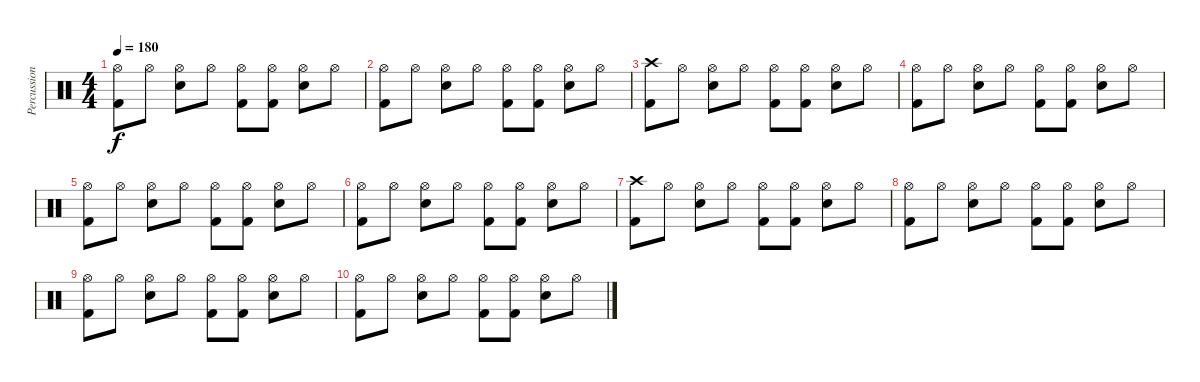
\track ("Percussion" "Percussion") {instrument percussion}
\staff {score}
\articulation defaults
\ts (4 4)
\tempo 180
\clef neutral
\ks c
("Hi-Hat (open)" "Kick (hit) 2").8{dy f} "Hi-Hat (open)".8 ("Hi-Hat (open)" "Snare (hit) 2").8 "Hi-Hat (open)".8 ("Hi-Hat (open)" "Kick (hit) 2").8 ("Hi-Hat (open)" "Kick (hit) 2").8 ("Hi-Hat (open)" "Snare (hit) 2").8 "Hi-Hat (open)".8 |
("Hi-Hat (open)" "Kick (hit) 2").8 "Hi-Hat (open)".8 ("Hi-Hat (open)" "Snare (hit) 2").8 "Hi-Hat (open)".8 ("Hi-Hat (open)" "Kick (hit) 2").8 ("Hi-Hat (open)" "Kick (hit) 2").8 ("Hi-Hat (open)" "Snare (hit) 2").8 "Hi-Hat (open)".8 |
("Crash high (hit)" "Kick (hit) 2").8 "Hi-Hat (open)".8 ("Hi-Hat (open)" "Snare (hit) 2").8 "Hi-Hat (open)".8 ("Hi-Hat (open)" "Kick (hit) 2").8 ("Hi-Hat (open)" "Kick (hit) 2").8 ("Hi-Hat (open)" "Snare (hit) 2").8 "Hi-Hat (open)".8 |
("Hi-Hat (open)" "Kick (hit) 2").8 "Hi-Hat (open)".8 ("Hi-Hat (open)" "Snare (hit) 2").8 "Hi-Hat (open)".8 ("Hi-Hat (open)" "Kick (hit) 2").8 ("Hi-Hat (open)" "Kick (hit) 2").8 ("Hi-Hat (open)" "Snare (hit) 2").8 "Hi-Hat (open)".8 |
("Hi-Hat (open)" "Kick (hit) 2").8 "Hi-Hat (open)".8 ("Hi-Hat (open)" "Snare (hit) 2").8 "Hi-Hat (open)".8 ("Hi-Hat (open)" "Kick (hit) 2").8 ("Hi-Hat (open)" "Kick (hit) 2").8 ("Hi-Hat (open)" "Snare (hit) 2").8 "Hi-Hat (open)".8 |
("Hi-Hat (open)" "Kick (hit) 2").8 "Hi-Hat (open)".8 ("Hi-Hat (open)" "Snare (hit) 2").8 "Hi-Hat (open)".8 ("Hi-Hat (open)" "Kick (hit) 2").8 ("Hi-Hat (open)" "Kick (hit) 2").8 ("Hi-Hat (open)" "Snare (hit) 2").8 "Hi-Hat (open)".8 |
("Crash high (hit)" "Kick (hit) 2").8 "Hi-Hat (open)".8 ("Hi-Hat (open)" "Snare (hit) 2").8 "Hi-Hat (open)".8 ("Hi-Hat (open)" "Kick (hit) 2").8 ("Hi-Hat (open)" "Kick (hit) 2").8 ("Hi-Hat (open)" "Snare (hit) 2").8 "Hi-Hat (open)".8 |
("Hi-Hat (open)" "Kick (hit) 2").8 "Hi-Hat (open)".8 ("Hi-Hat (open)" "Snare (hit) 2").8 "Hi-Hat (open)".8 ("Hi-Hat (open)" "Kick (hit) 2").8 ("Hi-Hat (open)" "Kick (hit) 2").8 ("Hi-Hat (open)" "Snare (hit) 2").8 "Hi-Hat (open)".8 |
("Hi-Hat (open)" "Kick (hit) 2").8 "Hi-Hat (open)".8 ("Hi-Hat (open)" "Snare (hit) 2").8 "Hi-Hat (open)".8 ("Hi-Hat (open)" "Kick (hit) 2").8 ("Hi-Hat (open)" "Kick (hit) 2").8 ("Hi-Hat (open)" "Snare (hit) 2").8 "Hi-Hat (open)".8 |
("Hi-Hat (open)" "Kick (hit) 2").8 "Hi-Hat (open)".8 ("Hi-Hat (open)" "Snare (hit) 2").8 "Hi-Hat (open)".8 ("Hi-Hat (open)" "Kick (hit) 2").8 ("Hi-Hat (open)" "Kick (hit) 2").8 ("Hi-Hat (open)" "Snare (hit) 2").8 "Hi-Hat (open)".8
